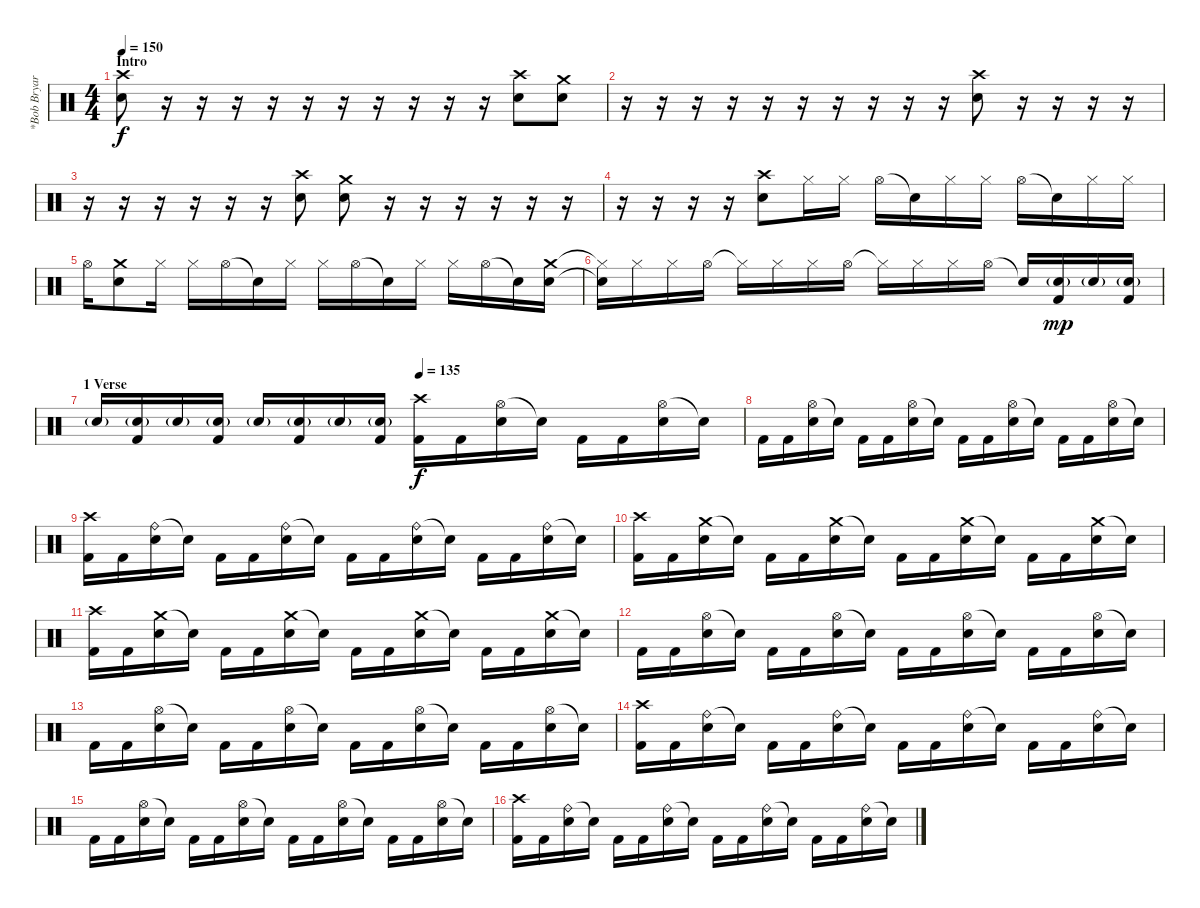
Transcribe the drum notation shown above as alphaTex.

\track ("*Bob Bryar" "*Bob Bryar") {instrument percussion}
\staff {score}
\articulation defaults
\ts (4 4)
\section ("" "Intro")
\tempo 150
\clef neutral
\ks c
("Crash high (hit)" "Electric Snare (hit)").8{dy f} r.16 r.16 r.16 r.16 r.16 r.16 r.16 r.16 r.16 r.16 ("Crash high (hit)" "Electric Snare (hit)").8 ("Crash medium (hit)" "Electric Snare (hit)").8 |
r.16 r.16 r.16 r.16 r.16 r.16 r.16 r.16 r.16 r.16 ("Crash high (hit)" "Electric Snare (hit)").8 r.16 r.16 r.16 r.16 |
r.16 r.16 r.16 r.16 r.16 r.16 ("Crash high (hit)" "Electric Snare (hit)").8 ("Crash medium (hit)" "Electric Snare (hit)").8 r.16 r.16 r.16 r.16 r.16 r.16 |
r.16 r.16 r.16 r.16 ("Crash high (hit)" "Electric Snare (hit)").8 "Hi-Hat (closed)".16 "Hi-Hat (closed)".16 "Hi-Hat (open)".16 "Snare (hit)"{t}.16 "Hi-Hat (closed)".16 "Hi-Hat (closed)".16 "Hi-Hat (open)".16 "Snare (hit)"{t}.16 "Hi-Hat (closed)".16 "Hi-Hat (closed)".16 |
"Hi-Hat (open)".16 ("Crash medium (hit)" "Electric Snare (hit)").8 "Hi-Hat (closed)".16 "Hi-Hat (closed)".16 "Hi-Hat (open)".16 "Snare (hit)"{t}.16 "Hi-Hat (closed)".16 "Hi-Hat (closed)".16 "Hi-Hat (open)".16 "Snare (hit)"{t}.16 "Hi-Hat (closed)".16 "Hi-Hat (closed)".16 "Hi-Hat (open)".16 "Snare (hit)"{t}.16 ("Crash medium (hit)" "Electric Snare (hit)").16 |
("Hi-Hat (closed)"{t} "Snare (hit)"{t}).16 "Hi-Hat (closed)".16 "Hi-Hat (closed)".16 "Hi-Hat (open)".16 "Hi-Hat (closed)"{t}.16 "Hi-Hat (closed)".16 "Hi-Hat (closed)".16 "Hi-Hat (open)".16 "Hi-Hat (closed)"{t}.16 "Hi-Hat (closed)".16 "Hi-Hat (closed)".16 "Hi-Hat (open)".16 "Snare (hit)"{t}.16 ("Electric Snare (hit)"{g} "Kick (hit) 2").16{dy mp} "Electric Snare (hit)"{g}.16 ("Electric Snare (hit)"{g} "Kick (hit) 2").16 |
\section ("" "1 Verse")
\tempo (135 0.5)
"Electric Snare (hit)"{g}.16 ("Electric Snare (hit)"{g} "Kick (hit) 2").16 "Electric Snare (hit)"{g}.16 ("Electric Snare (hit)"{g} "Kick (hit) 2").16 "Electric Snare (hit)"{g}.16 ("Electric Snare (hit)"{g} "Kick (hit) 2").16 "Electric Snare (hit)"{g}.16 ("Electric Snare (hit)"{g} "Kick (hit) 2").16 ("Crash high (hit)" "Kick (hit) 2").16{dy f} "Kick (hit) 2".16 ("Hi-Hat (open)" "Electric Snare (hit)").16 "Snare (hit)"{t}.16 "Kick (hit) 2".16 "Kick (hit) 2".16 ("Hi-Hat (open)" "Electric Snare (hit)").16 "Snare (hit)"{t}.16 |
"Kick (hit) 2".16 "Kick (hit) 2".16 ("Hi-Hat (open)" "Electric Snare (hit)").16 "Snare (hit)"{t}.16 "Kick (hit) 2".16 "Kick (hit) 2".16 ("Hi-Hat (open)" "Electric Snare (hit)").16 "Snare (hit)"{t}.16 "Kick (hit) 2".16 "Kick (hit) 2".16 ("Hi-Hat (open)" "Electric Snare (hit)").16 "Snare (hit)"{t}.16 "Kick (hit) 2".16 "Kick (hit) 2".16 ("Hi-Hat (open)" "Electric Snare (hit)").16 "Snare (hit)"{t}.16 |
("Crash high (hit)" "Kick (hit) 2").16 "Kick (hit) 2".16 ("Ride (bell)" "Electric Snare (hit)").16 "Snare (hit)"{t}.16 "Kick (hit) 2".16 "Kick (hit) 2".16 ("Ride (bell)" "Electric Snare (hit)").16 "Snare (hit)"{t}.16 "Kick (hit) 2".16 "Kick (hit) 2".16 ("Ride (bell)" "Electric Snare (hit)").16 "Snare (hit)"{t}.16 "Kick (hit) 2".16 "Kick (hit) 2".16 ("Ride (bell)" "Electric Snare (hit)").16 "Snare (hit)"{t}.16 |
("Crash high (hit)" "Kick (hit) 2").16 "Kick (hit) 2".16 ("Crash medium (hit)" "Electric Snare (hit)").16 "Snare (hit)"{t}.16 "Kick (hit) 2".16 "Kick (hit) 2".16 ("Crash medium (hit)" "Electric Snare (hit)").16 "Snare (hit)"{t}.16 "Kick (hit) 2".16 "Kick (hit) 2".16 ("Crash medium (hit)" "Electric Snare (hit)").16 "Snare (hit)"{t}.16 "Kick (hit) 2".16 "Kick (hit) 2".16 ("Crash medium (hit)" "Electric Snare (hit)").16 "Snare (hit)"{t}.16 |
("Crash high (hit)" "Kick (hit) 2").16 "Kick (hit) 2".16 ("Crash medium (hit)" "Electric Snare (hit)").16 "Snare (hit)"{t}.16 "Kick (hit) 2".16 "Kick (hit) 2".16 ("Crash medium (hit)" "Electric Snare (hit)").16 "Snare (hit)"{t}.16 "Kick (hit) 2".16 "Kick (hit) 2".16 ("Crash medium (hit)" "Electric Snare (hit)").16 "Snare (hit)"{t}.16 "Kick (hit) 2".16 "Kick (hit) 2".16 ("Crash medium (hit)" "Electric Snare (hit)").16 "Snare (hit)"{t}.16 |
"Kick (hit) 2".16 "Kick (hit) 2".16 ("Hi-Hat (open)" "Electric Snare (hit)").16 "Snare (hit)"{t}.16 "Kick (hit) 2".16 "Kick (hit) 2".16 ("Hi-Hat (open)" "Electric Snare (hit)").16 "Snare (hit)"{t}.16 "Kick (hit) 2".16 "Kick (hit) 2".16 ("Hi-Hat (open)" "Electric Snare (hit)").16 "Snare (hit)"{t}.16 "Kick (hit) 2".16 "Kick (hit) 2".16 ("Hi-Hat (open)" "Electric Snare (hit)").16 "Snare (hit)"{t}.16 |
"Kick (hit) 2".16 "Kick (hit) 2".16 ("Hi-Hat (open)" "Electric Snare (hit)").16 "Snare (hit)"{t}.16 "Kick (hit) 2".16 "Kick (hit) 2".16 ("Hi-Hat (open)" "Electric Snare (hit)").16 "Snare (hit)"{t}.16 "Kick (hit) 2".16 "Kick (hit) 2".16 ("Hi-Hat (open)" "Electric Snare (hit)").16 "Snare (hit)"{t}.16 "Kick (hit) 2".16 "Kick (hit) 2".16 ("Hi-Hat (open)" "Electric Snare (hit)").16 "Snare (hit)"{t}.16 |
("Crash high (hit)" "Kick (hit) 2").16 "Kick (hit) 2".16 ("Ride (bell)" "Electric Snare (hit)").16 "Snare (hit)"{t}.16 "Kick (hit) 2".16 "Kick (hit) 2".16 ("Ride (bell)" "Electric Snare (hit)").16 "Snare (hit)"{t}.16 "Kick (hit) 2".16 "Kick (hit) 2".16 ("Ride (bell)" "Electric Snare (hit)").16 "Snare (hit)"{t}.16 "Kick (hit) 2".16 "Kick (hit) 2".16 ("Ride (bell)" "Electric Snare (hit)").16 "Snare (hit)"{t}.16 |
"Kick (hit) 2".16 "Kick (hit) 2".16 ("Hi-Hat (open)" "Electric Snare (hit)").16 "Snare (hit)"{t}.16 "Kick (hit) 2".16 "Kick (hit) 2".16 ("Hi-Hat (open)" "Electric Snare (hit)").16 "Snare (hit)"{t}.16 "Kick (hit) 2".16 "Kick (hit) 2".16 ("Hi-Hat (open)" "Electric Snare (hit)").16 "Snare (hit)"{t}.16 "Kick (hit) 2".16 "Kick (hit) 2".16 ("Hi-Hat (open)" "Electric Snare (hit)").16 "Snare (hit)"{t}.16 |
("Crash high (hit)" "Kick (hit) 2").16 "Kick (hit) 2".16 ("Ride (bell)" "Electric Snare (hit)").16 "Snare (hit)"{t}.16 "Kick (hit) 2".16 "Kick (hit) 2".16 ("Ride (bell)" "Electric Snare (hit)").16 "Snare (hit)"{t}.16 "Kick (hit) 2".16 "Kick (hit) 2".16 ("Ride (bell)" "Electric Snare (hit)").16 "Snare (hit)"{t}.16 "Kick (hit) 2".16 "Kick (hit) 2".16 ("Ride (bell)" "Electric Snare (hit)").16 "Snare (hit)"{t}.16
